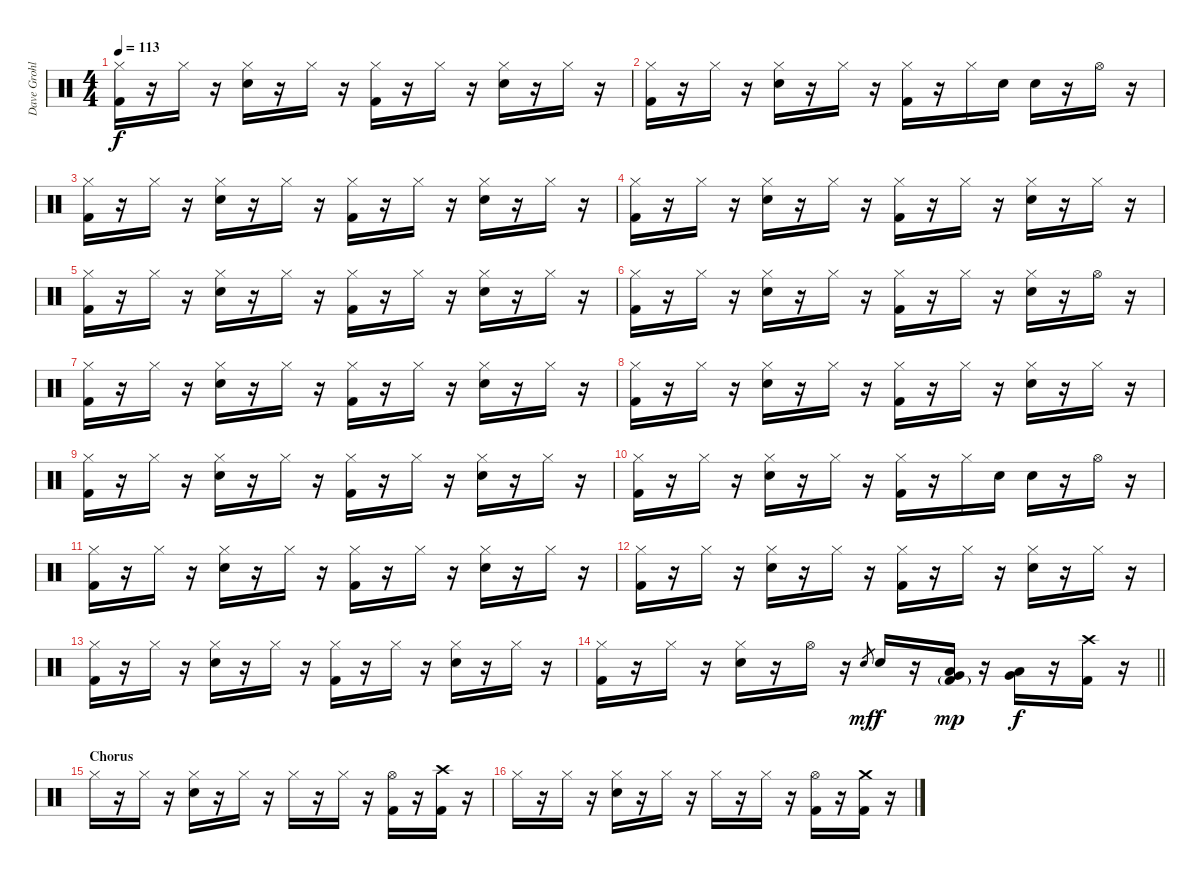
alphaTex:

\track ("Dave Grohl" "Dave Grohl") {instrument percussion}
\staff {score}
\articulation defaults
\ts (4 4)
\tempo 113
\clef neutral
\ks c
("Hi-Hat (closed)" "Kick (hit) 2").16{dy f} r.16 "Hi-Hat (closed)".16 r.16 ("Hi-Hat (closed)" "Electric Snare (hit)").16 r.16 "Hi-Hat (closed)".16 r.16 ("Hi-Hat (closed)" "Kick (hit) 2").16 r.16 "Hi-Hat (closed)".16 r.16 ("Hi-Hat (closed)" "Electric Snare (hit)").16 r.16 "Hi-Hat (closed)".16 r.16 |
("Hi-Hat (closed)" "Kick (hit) 2").16 r.16 "Hi-Hat (closed)".16 r.16 ("Hi-Hat (closed)" "Electric Snare (hit)").16 r.16 "Hi-Hat (closed)".16 r.16 ("Hi-Hat (closed)" "Kick (hit) 2").16 r.16 "Hi-Hat (closed)".16 "Electric Snare (hit)".16 "Electric Snare (hit)".16 r.16 "Hi-Hat (open)".16 r.16 |
("Hi-Hat (closed)" "Kick (hit) 2").16 r.16 "Hi-Hat (closed)".16 r.16 ("Hi-Hat (closed)" "Electric Snare (hit)").16 r.16 "Hi-Hat (closed)".16 r.16 ("Hi-Hat (closed)" "Kick (hit) 2").16 r.16 "Hi-Hat (closed)".16 r.16 ("Hi-Hat (closed)" "Electric Snare (hit)").16 r.16 "Hi-Hat (closed)".16 r.16 |
("Hi-Hat (closed)" "Kick (hit) 2").16 r.16 "Hi-Hat (closed)".16 r.16 ("Hi-Hat (closed)" "Electric Snare (hit)").16 r.16 "Hi-Hat (closed)".16 r.16 ("Hi-Hat (closed)" "Kick (hit) 2").16 r.16 "Hi-Hat (closed)".16 r.16 ("Hi-Hat (closed)" "Electric Snare (hit)").16 r.16 "Hi-Hat (closed)".16 r.16 |
("Hi-Hat (closed)" "Kick (hit) 2").16 r.16 "Hi-Hat (closed)".16 r.16 ("Hi-Hat (closed)" "Electric Snare (hit)").16 r.16 "Hi-Hat (closed)".16 r.16 ("Hi-Hat (closed)" "Kick (hit) 2").16 r.16 "Hi-Hat (closed)".16 r.16 ("Hi-Hat (closed)" "Electric Snare (hit)").16 r.16 "Hi-Hat (closed)".16 r.16 |
("Hi-Hat (closed)" "Kick (hit) 2").16 r.16 "Hi-Hat (closed)".16 r.16 ("Hi-Hat (closed)" "Electric Snare (hit)").16 r.16 "Hi-Hat (closed)".16 r.16 ("Hi-Hat (closed)" "Kick (hit) 2").16 r.16 "Hi-Hat (closed)".16 r.16 ("Hi-Hat (closed)" "Electric Snare (hit)").16 r.16 "Hi-Hat (open)".16 r.16 |
("Hi-Hat (closed)" "Kick (hit) 2").16 r.16 "Hi-Hat (closed)".16 r.16 ("Hi-Hat (closed)" "Electric Snare (hit)").16 r.16 "Hi-Hat (closed)".16 r.16 ("Hi-Hat (closed)" "Kick (hit) 2").16 r.16 "Hi-Hat (closed)".16 r.16 ("Hi-Hat (closed)" "Electric Snare (hit)").16 r.16 "Hi-Hat (closed)".16 r.16 |
("Hi-Hat (closed)" "Kick (hit) 2").16 r.16 "Hi-Hat (closed)".16 r.16 ("Hi-Hat (closed)" "Electric Snare (hit)").16 r.16 "Hi-Hat (closed)".16 r.16 ("Hi-Hat (closed)" "Kick (hit) 2").16 r.16 "Hi-Hat (closed)".16 r.16 ("Hi-Hat (closed)" "Electric Snare (hit)").16 r.16 "Hi-Hat (closed)".16 r.16 |
("Hi-Hat (closed)" "Kick (hit) 2").16 r.16 "Hi-Hat (closed)".16 r.16 ("Hi-Hat (closed)" "Electric Snare (hit)").16 r.16 "Hi-Hat (closed)".16 r.16 ("Hi-Hat (closed)" "Kick (hit) 2").16 r.16 "Hi-Hat (closed)".16 r.16 ("Hi-Hat (closed)" "Electric Snare (hit)").16 r.16 "Hi-Hat (closed)".16 r.16 |
("Hi-Hat (closed)" "Kick (hit) 2").16 r.16 "Hi-Hat (closed)".16 r.16 ("Hi-Hat (closed)" "Electric Snare (hit)").16 r.16 "Hi-Hat (closed)".16 r.16 ("Hi-Hat (closed)" "Kick (hit) 2").16 r.16 "Hi-Hat (closed)".16 "Electric Snare (hit)".16 "Electric Snare (hit)".16 r.16 "Hi-Hat (open)".16 r.16 |
("Hi-Hat (closed)" "Kick (hit) 2").16 r.16 "Hi-Hat (closed)".16 r.16 ("Hi-Hat (closed)" "Electric Snare (hit)").16 r.16 "Hi-Hat (closed)".16 r.16 ("Hi-Hat (closed)" "Kick (hit) 2").16 r.16 "Hi-Hat (closed)".16 r.16 ("Hi-Hat (closed)" "Electric Snare (hit)").16 r.16 "Hi-Hat (closed)".16 r.16 |
("Hi-Hat (closed)" "Kick (hit) 2").16 r.16 "Hi-Hat (closed)".16 r.16 ("Hi-Hat (closed)" "Electric Snare (hit)").16 r.16 "Hi-Hat (closed)".16 r.16 ("Hi-Hat (closed)" "Kick (hit) 2").16 r.16 "Hi-Hat (closed)".16 r.16 ("Hi-Hat (closed)" "Electric Snare (hit)").16 r.16 "Hi-Hat (closed)".16 r.16 |
("Hi-Hat (closed)" "Kick (hit) 2").16 r.16 "Hi-Hat (closed)".16 r.16 ("Hi-Hat (closed)" "Electric Snare (hit)").16 r.16 "Hi-Hat (closed)".16 r.16 ("Hi-Hat (closed)" "Kick (hit) 2").16 r.16 "Hi-Hat (closed)".16 r.16 ("Hi-Hat (closed)" "Electric Snare (hit)").16 r.16 "Hi-Hat (closed)".16 r.16 |
\barLineRight lightlight
("Hi-Hat (closed)" "Kick (hit) 2").16 r.16 "Hi-Hat (closed)".16 r.16 ("Hi-Hat (closed)" "Electric Snare (hit)").16 r.16 "Hi-Hat (open)".16 r.16 "Electric Snare (hit)".8{gr dy mf} "Electric Snare (hit)".16{dy f} r.16 ("Very Low Tom (hit)" "Low Tom (hit)" "Kick (hit) 2"{g}).16{dy mp} r.16 ("Very Low Tom (hit)" "Low Tom (hit)").16{dy f} r.16 ("Crash high (hit)" "Kick (hit) 2").16 r.16 |
\section ("" "Chorus")
"Hi-Hat (closed)".16 r.16 "Hi-Hat (closed)".16 r.16 ("Hi-Hat (closed)" "Electric Snare (hit)").16 r.16 "Hi-Hat (closed)".16 r.16 "Hi-Hat (closed)".16 r.16 "Hi-Hat (closed)".16 r.16 ("Hi-Hat (open)" "Kick (hit) 2").16 r.16 ("Crash high (hit)" "Kick (hit) 2").16 r.16 |
"Hi-Hat (closed)".16 r.16 "Hi-Hat (closed)".16 r.16 ("Hi-Hat (closed)" "Electric Snare (hit)").16 r.16 "Hi-Hat (closed)".16 r.16 "Hi-Hat (closed)".16 r.16 "Hi-Hat (closed)".16 r.16 ("Hi-Hat (open)" "Kick (hit) 2").16 r.16 ("Crash medium (hit)" "Kick (hit) 2").16 r.16
